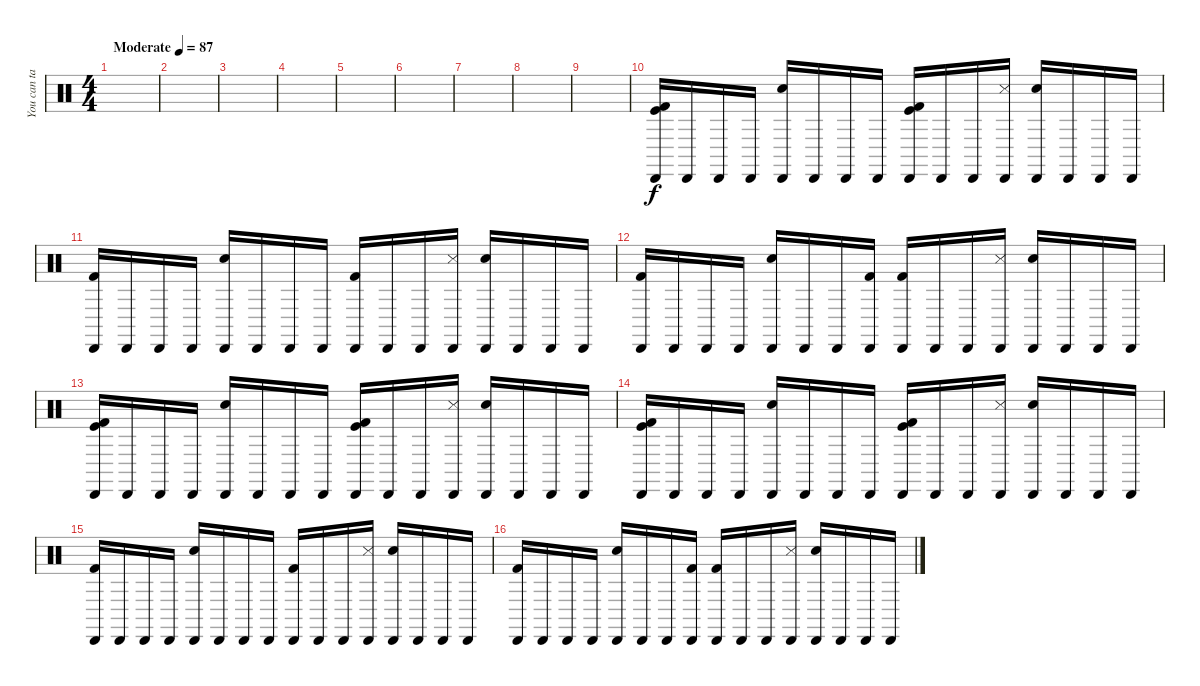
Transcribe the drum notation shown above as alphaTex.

\track ("You can take full" "You can ta") {solo instrument percussion}
\staff {score}
\articulation defaults
\ts (4 4)
\tempo (87 "Moderate")
\clef neutral
\ks c
|
|
|
|
|
|
|
|
|
("Kick (hit) 2" "Kick (hit)" "Cabasa (hit)").16 "Cabasa (hit)".16 "Cabasa (hit)".16 "Cabasa (hit)".16 ("Hand Clap (hit)" "Cabasa (hit)").16 "Cabasa (hit)".16 "Cabasa (hit)".16 "Cabasa (hit)".16 ("Kick (hit) 2" "Kick (hit)" "Cabasa (hit)").16 "Cabasa (hit)".16 "Cabasa (hit)".16 ("Snare (side stick) 3" "Cabasa (hit)").16 ("Hand Clap (hit)" "Cabasa (hit)").16 "Cabasa (hit)".16 "Cabasa (hit)".16 "Cabasa (hit)".16 |
("Kick (hit) 2" "Cabasa (hit)").16 "Cabasa (hit)".16 "Cabasa (hit)".16 "Cabasa (hit)".16 ("Hand Clap (hit)" "Cabasa (hit)").16 "Cabasa (hit)".16 "Cabasa (hit)".16 "Cabasa (hit)".16 ("Kick (hit) 2" "Cabasa (hit)").16 "Cabasa (hit)".16 "Cabasa (hit)".16 ("Snare (side stick) 3" "Cabasa (hit)").16 ("Hand Clap (hit)" "Cabasa (hit)").16 "Cabasa (hit)".16 "Cabasa (hit)".16 "Cabasa (hit)".16 |
("Kick (hit) 2" "Cabasa (hit)").16 "Cabasa (hit)".16 "Cabasa (hit)".16 "Cabasa (hit)".16 ("Hand Clap (hit)" "Cabasa (hit)").16 "Cabasa (hit)".16 "Cabasa (hit)".16 ("Kick (hit) 2" "Cabasa (hit)").16 ("Kick (hit) 2" "Cabasa (hit)").16 "Cabasa (hit)".16 "Cabasa (hit)".16 ("Snare (side stick) 3" "Cabasa (hit)").16 ("Hand Clap (hit)" "Cabasa (hit)").16 "Cabasa (hit)".16 "Cabasa (hit)".16 "Cabasa (hit)".16 |
("Kick (hit) 2" "Kick (hit)" "Cabasa (hit)").16 "Cabasa (hit)".16 "Cabasa (hit)".16 "Cabasa (hit)".16 ("Hand Clap (hit)" "Cabasa (hit)").16 "Cabasa (hit)".16 "Cabasa (hit)".16 "Cabasa (hit)".16 ("Kick (hit) 2" "Kick (hit)" "Cabasa (hit)").16 "Cabasa (hit)".16 "Cabasa (hit)".16 ("Snare (side stick) 3" "Cabasa (hit)").16 ("Hand Clap (hit)" "Cabasa (hit)").16 "Cabasa (hit)".16 "Cabasa (hit)".16 "Cabasa (hit)".16 |
("Kick (hit) 2" "Kick (hit)" "Cabasa (hit)").16 "Cabasa (hit)".16 "Cabasa (hit)".16 "Cabasa (hit)".16 ("Hand Clap (hit)" "Cabasa (hit)").16 "Cabasa (hit)".16 "Cabasa (hit)".16 "Cabasa (hit)".16 ("Kick (hit) 2" "Kick (hit)" "Cabasa (hit)").16 "Cabasa (hit)".16 "Cabasa (hit)".16 ("Snare (side stick) 3" "Cabasa (hit)").16 ("Hand Clap (hit)" "Cabasa (hit)").16 "Cabasa (hit)".16 "Cabasa (hit)".16 "Cabasa (hit)".16 |
("Kick (hit) 2" "Cabasa (hit)").16 "Cabasa (hit)".16 "Cabasa (hit)".16 "Cabasa (hit)".16 ("Hand Clap (hit)" "Cabasa (hit)").16 "Cabasa (hit)".16 "Cabasa (hit)".16 "Cabasa (hit)".16 ("Kick (hit) 2" "Cabasa (hit)").16 "Cabasa (hit)".16 "Cabasa (hit)".16 ("Snare (side stick) 3" "Cabasa (hit)").16 ("Hand Clap (hit)" "Cabasa (hit)").16 "Cabasa (hit)".16 "Cabasa (hit)".16 "Cabasa (hit)".16 |
("Kick (hit) 2" "Cabasa (hit)").16 "Cabasa (hit)".16 "Cabasa (hit)".16 "Cabasa (hit)".16 ("Hand Clap (hit)" "Cabasa (hit)").16 "Cabasa (hit)".16 "Cabasa (hit)".16 ("Kick (hit) 2" "Cabasa (hit)").16 ("Kick (hit) 2" "Cabasa (hit)").16 "Cabasa (hit)".16 "Cabasa (hit)".16 ("Snare (side stick) 3" "Cabasa (hit)").16 ("Hand Clap (hit)" "Cabasa (hit)").16 "Cabasa (hit)".16 "Cabasa (hit)".16 "Cabasa (hit)".16
